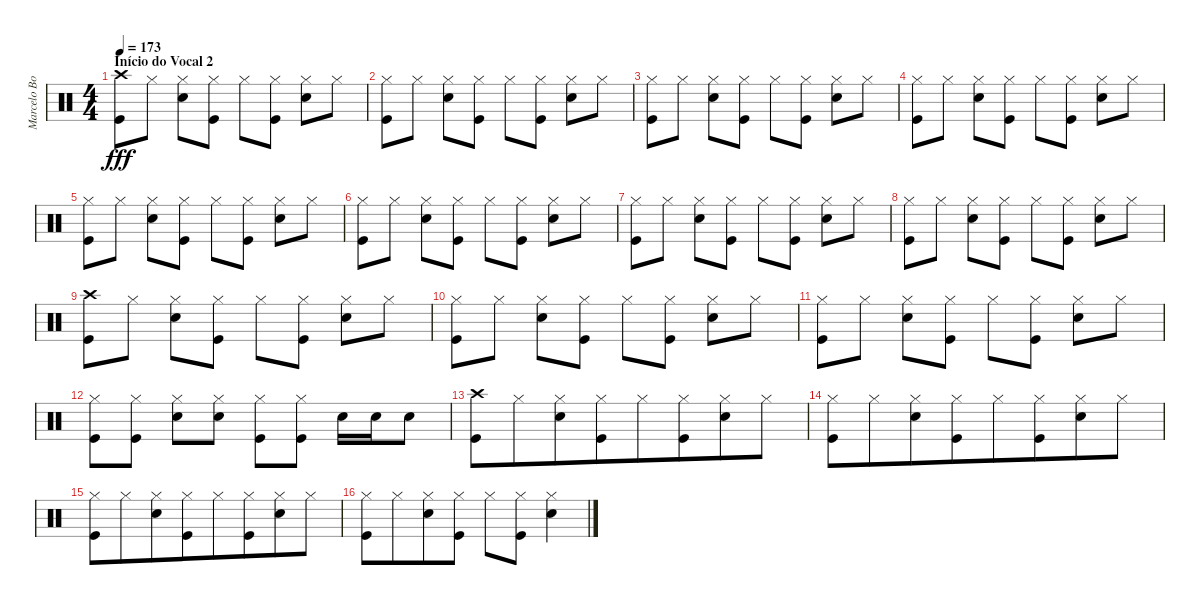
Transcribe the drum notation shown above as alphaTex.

\track ("Marcelo Bonfá (Bateria)" "Marcelo Bo") {instrument percussion}
\staff {score}
\articulation defaults
\ts (4 4)
\section ("" "Início do Vocal 2")
\tempo 173
\clef neutral
\ks c
("Kick (hit)" "Crash high (hit)").8{dy fff} "Hi-Hat (closed)".8 ("Snare (hit) 2" "Hi-Hat (closed)").8 ("Kick (hit)" "Hi-Hat (closed)").8 "Hi-Hat (closed)".8 ("Hi-Hat (closed)" "Kick (hit)").8 ("Snare (hit) 2" "Hi-Hat (closed)").8 "Hi-Hat (closed)".8 |
("Kick (hit)" "Hi-Hat (closed)").8 "Hi-Hat (closed)".8 ("Snare (hit) 2" "Hi-Hat (closed)").8 ("Kick (hit)" "Hi-Hat (closed)").8 "Hi-Hat (closed)".8 ("Hi-Hat (closed)" "Kick (hit)").8 ("Snare (hit) 2" "Hi-Hat (closed)").8 "Hi-Hat (closed)".8 |
("Kick (hit)" "Hi-Hat (closed)").8 "Hi-Hat (closed)".8 ("Snare (hit) 2" "Hi-Hat (closed)").8 ("Kick (hit)" "Hi-Hat (closed)").8 "Hi-Hat (closed)".8 ("Hi-Hat (closed)" "Kick (hit)").8 ("Snare (hit) 2" "Hi-Hat (closed)").8 "Hi-Hat (closed)".8 |
("Kick (hit)" "Hi-Hat (closed)").8 "Hi-Hat (closed)".8 ("Snare (hit) 2" "Hi-Hat (closed)").8 ("Kick (hit)" "Hi-Hat (closed)").8 "Hi-Hat (closed)".8 ("Hi-Hat (closed)" "Kick (hit)").8 ("Snare (hit) 2" "Hi-Hat (closed)").8 "Hi-Hat (closed)".8 |
("Kick (hit)" "Hi-Hat (closed)").8 "Hi-Hat (closed)".8 ("Snare (hit) 2" "Hi-Hat (closed)").8 ("Kick (hit)" "Hi-Hat (closed)").8 "Hi-Hat (closed)".8 ("Hi-Hat (closed)" "Kick (hit)").8 ("Snare (hit) 2" "Hi-Hat (closed)").8 "Hi-Hat (closed)".8 |
("Kick (hit)" "Hi-Hat (closed)").8 "Hi-Hat (closed)".8 ("Snare (hit) 2" "Hi-Hat (closed)").8 ("Kick (hit)" "Hi-Hat (closed)").8 "Hi-Hat (closed)".8 ("Hi-Hat (closed)" "Kick (hit)").8 ("Snare (hit) 2" "Hi-Hat (closed)").8 "Hi-Hat (closed)".8 |
("Kick (hit)" "Hi-Hat (closed)").8 "Hi-Hat (closed)".8 ("Snare (hit) 2" "Hi-Hat (closed)").8 ("Kick (hit)" "Hi-Hat (closed)").8 "Hi-Hat (closed)".8 ("Hi-Hat (closed)" "Kick (hit)").8 ("Snare (hit) 2" "Hi-Hat (closed)").8 "Hi-Hat (closed)".8 |
("Kick (hit)" "Hi-Hat (closed)").8 "Hi-Hat (closed)".8 ("Snare (hit) 2" "Hi-Hat (closed)").8 ("Kick (hit)" "Hi-Hat (closed)").8 "Hi-Hat (closed)".8 ("Hi-Hat (closed)" "Kick (hit)").8 ("Snare (hit) 2" "Hi-Hat (closed)").8 "Hi-Hat (closed)".8 |
("Kick (hit)" "Crash high (hit)").8 "Hi-Hat (closed)".8 ("Snare (hit) 2" "Hi-Hat (closed)").8 ("Kick (hit)" "Hi-Hat (closed)").8 "Hi-Hat (closed)".8 ("Hi-Hat (closed)" "Kick (hit)").8 ("Snare (hit) 2" "Hi-Hat (closed)").8 "Hi-Hat (closed)".8 |
("Kick (hit)" "Hi-Hat (closed)").8 "Hi-Hat (closed)".8 ("Snare (hit) 2" "Hi-Hat (closed)").8 ("Kick (hit)" "Hi-Hat (closed)").8 "Hi-Hat (closed)".8 ("Hi-Hat (closed)" "Kick (hit)").8 ("Snare (hit) 2" "Hi-Hat (closed)").8 "Hi-Hat (closed)".8 |
("Kick (hit)" "Hi-Hat (closed)").8 "Hi-Hat (closed)".8 ("Snare (hit) 2" "Hi-Hat (closed)").8 ("Kick (hit)" "Hi-Hat (closed)").8 "Hi-Hat (closed)".8 ("Hi-Hat (closed)" "Kick (hit)").8 ("Snare (hit) 2" "Hi-Hat (closed)").8 "Hi-Hat (closed)".8 |
("Kick (hit)" "Hi-Hat (closed)").8 ("Kick (hit)" "Hi-Hat (closed)").8 ("Snare (hit) 2" "Hi-Hat (closed)").8 ("Snare (hit) 2" "Hi-Hat (closed)").8 ("Kick (hit)" "Hi-Hat (closed)").8 ("Kick (hit)" "Hi-Hat (closed)").8 "Snare (hit) 2".16 "Snare (hit) 2".16 "Snare (hit) 2".8 |
("Kick (hit)" "Crash high (hit)").8{beam merge} "Hi-Hat (closed)".8{beam merge} ("Snare (hit) 2" "Hi-Hat (closed)").8{beam merge} ("Kick (hit)" "Hi-Hat (closed)").8{beam merge} "Hi-Hat (closed)".8{beam merge} ("Hi-Hat (closed)" "Kick (hit)").8{beam merge} ("Snare (hit) 2" "Hi-Hat (closed)").8{beam merge} "Hi-Hat (closed)".8 |
("Kick (hit)" "Hi-Hat (closed)").8 "Hi-Hat (closed)".8{beam merge} ("Snare (hit) 2" "Hi-Hat (closed)").8 ("Kick (hit)" "Hi-Hat (closed)").8{beam merge} "Hi-Hat (closed)".8 ("Hi-Hat (closed)" "Kick (hit)").8{beam merge} ("Snare (hit) 2" "Hi-Hat (closed)").8 "Hi-Hat (closed)".8 |
("Kick (hit)" "Hi-Hat (closed)").8 "Hi-Hat (closed)".8{beam merge} ("Snare (hit) 2" "Hi-Hat (closed)").8 ("Kick (hit)" "Hi-Hat (closed)").8{beam merge} "Hi-Hat (closed)".8 ("Hi-Hat (closed)" "Kick (hit)").8{beam merge} ("Snare (hit) 2" "Hi-Hat (closed)").8 "Hi-Hat (closed)".8 |
("Kick (hit)" "Hi-Hat (closed)").8 "Hi-Hat (closed)".8{beam merge} ("Snare (hit) 2" "Hi-Hat (closed)").8 ("Kick (hit)" "Hi-Hat (closed)").8 "Hi-Hat (closed)".8 ("Hi-Hat (closed)" "Kick (hit)").8 ("Snare (hit) 2" "Hi-Hat (closed)").4
